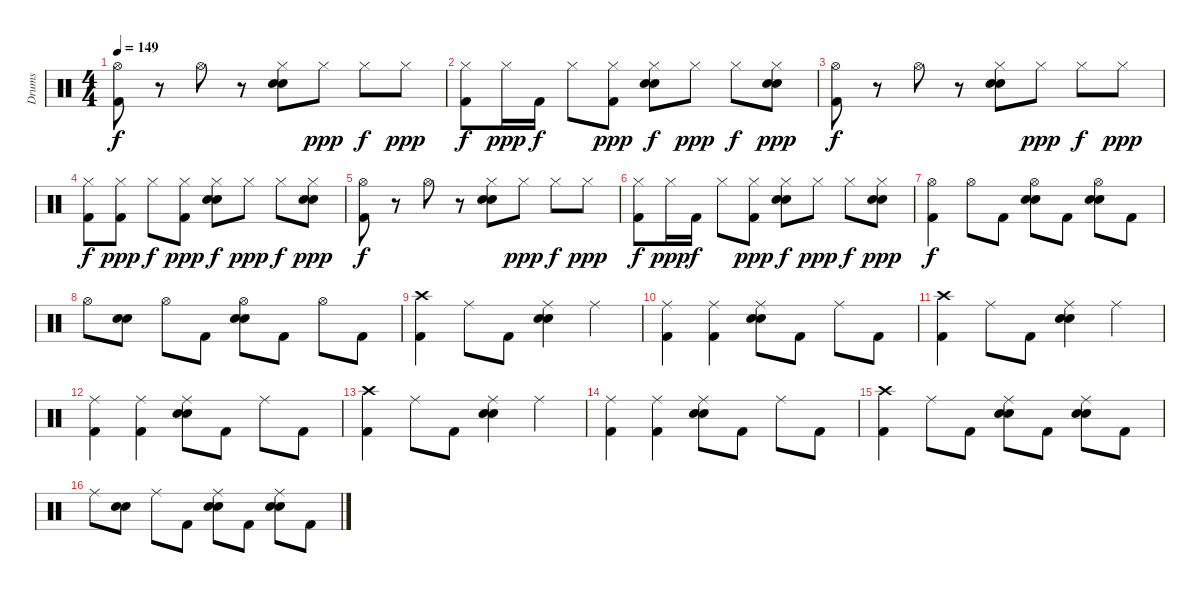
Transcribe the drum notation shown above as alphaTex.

\track ("Drums" "Drums") {instrument percussion}
\staff {score}
\articulation defaults
\ts (4 4)
\tempo 149
\clef neutral
\ks c
("Kick (hit) 2" "Hi-Hat (open)").8{dy f} r.8 "Hi-Hat (open)".8 r.8 ("Electric Snare (hit)" "Snare (hit) 2" "Hi-Hat (closed)").8 "Hi-Hat (closed)".8{dy ppp} "Hi-Hat (closed)".8{dy f} "Hi-Hat (closed)".8{dy ppp} |
("Kick (hit) 2" "Hi-Hat (closed)").8{dy f} "Hi-Hat (closed)".16{dy ppp} "Kick (hit) 2".16{dy f} "Hi-Hat (closed)".8 ("Kick (hit) 2" "Hi-Hat (closed)").8{dy ppp} ("Electric Snare (hit)" "Snare (hit) 2" "Hi-Hat (closed)").8{dy f} "Hi-Hat (closed)".8{dy ppp} "Hi-Hat (closed)".8{dy f} ("Electric Snare (hit)" "Snare (hit) 2" "Hi-Hat (closed)").8{dy ppp} |
("Kick (hit) 2" "Hi-Hat (open)").8{dy f} r.8 "Hi-Hat (open)".8 r.8 ("Electric Snare (hit)" "Snare (hit) 2" "Hi-Hat (closed)").8 "Hi-Hat (closed)".8{dy ppp} "Hi-Hat (closed)".8{dy f} "Hi-Hat (closed)".8{dy ppp} |
("Kick (hit) 2" "Hi-Hat (closed)").8{dy f} ("Kick (hit) 2" "Hi-Hat (closed)").8{dy ppp} "Hi-Hat (closed)".8{dy f} ("Kick (hit) 2" "Hi-Hat (closed)").8{dy ppp} ("Electric Snare (hit)" "Snare (hit) 2" "Hi-Hat (closed)").8{dy f} "Hi-Hat (closed)".8{dy ppp} "Hi-Hat (closed)".8{dy f} ("Electric Snare (hit)" "Snare (hit) 2" "Hi-Hat (closed)").8{dy ppp} |
("Kick (hit) 2" "Hi-Hat (open)").8{dy f} r.8 "Hi-Hat (open)".8 r.8 ("Electric Snare (hit)" "Snare (hit) 2" "Hi-Hat (closed)").8 "Hi-Hat (closed)".8{dy ppp} "Hi-Hat (closed)".8{dy f} "Hi-Hat (closed)".8{dy ppp} |
("Kick (hit) 2" "Hi-Hat (closed)").8{dy f} "Hi-Hat (closed)".16{dy ppp} "Kick (hit) 2".16{dy f} "Hi-Hat (closed)".8 ("Kick (hit) 2" "Hi-Hat (closed)").8{dy ppp} ("Electric Snare (hit)" "Snare (hit) 2" "Hi-Hat (closed)").8{dy f} "Hi-Hat (closed)".8{dy ppp} "Hi-Hat (closed)".8{dy f} ("Electric Snare (hit)" "Snare (hit) 2" "Hi-Hat (closed)").8{dy ppp} |
("Kick (hit) 2" "Hi-Hat (open)").4{dy f} "Hi-Hat (open)".8 "Kick (hit) 2".8 ("Electric Snare (hit)" "Snare (hit) 2" "Hi-Hat (open)").8 "Kick (hit) 2".8 ("Electric Snare (hit)" "Snare (hit) 2" "Hi-Hat (open)").8 "Kick (hit) 2".8 |
"Hi-Hat (open)".8 ("Electric Snare (hit)" "Snare (hit) 2").8 "Hi-Hat (open)".8 "Kick (hit) 2".8 ("Electric Snare (hit)" "Snare (hit) 2" "Hi-Hat (open)").8 "Kick (hit) 2".8 "Hi-Hat (open)".8 "Kick (hit) 2".8 |
("Kick (hit) 2" "Crash high (hit)").4 "Ride (middle)".8 "Kick (hit) 2".8 ("Electric Snare (hit)" "Snare (hit) 2" "Ride (middle)").4 "Ride (middle)".4 |
("Kick (hit) 2" "Ride (middle)").4 ("Kick (hit) 2" "Ride (middle)").4 ("Electric Snare (hit)" "Snare (hit) 2" "Ride (middle)").8 "Kick (hit) 2".8 "Ride (middle)".8 "Kick (hit) 2".8 |
("Kick (hit) 2" "Crash high (hit)").4 "Ride (middle)".8 "Kick (hit) 2".8 ("Electric Snare (hit)" "Snare (hit) 2" "Ride (middle)").4 "Ride (middle)".4 |
("Kick (hit) 2" "Ride (middle)").4 ("Kick (hit) 2" "Ride (middle)").4 ("Electric Snare (hit)" "Snare (hit) 2" "Ride (middle)").8 "Kick (hit) 2".8 "Ride (middle)".8 "Kick (hit) 2".8 |
("Kick (hit) 2" "Crash high (hit)").4 "Ride (middle)".8 "Kick (hit) 2".8 ("Electric Snare (hit)" "Snare (hit) 2" "Ride (middle)").4 "Ride (middle)".4 |
("Kick (hit) 2" "Ride (middle)").4 ("Kick (hit) 2" "Ride (middle)").4 ("Electric Snare (hit)" "Snare (hit) 2" "Ride (middle)").8 "Kick (hit) 2".8 "Ride (middle)".8 "Kick (hit) 2".8 |
("Kick (hit) 2" "Crash high (hit)").4 "Ride (middle)".8 "Kick (hit) 2".8 ("Electric Snare (hit)" "Snare (hit) 2" "Ride (middle)").8 "Kick (hit) 2".8 ("Electric Snare (hit)" "Snare (hit) 2" "Ride (middle)").8 "Kick (hit) 2".8 |
"Ride (middle)".8 ("Electric Snare (hit)" "Snare (hit) 2").8 "Ride (middle)".8 "Kick (hit) 2".8 ("Electric Snare (hit)" "Snare (hit) 2" "Ride (middle)").8 "Kick (hit) 2".8 ("Electric Snare (hit)" "Snare (hit) 2" "Ride (middle)").8 "Kick (hit) 2".8
